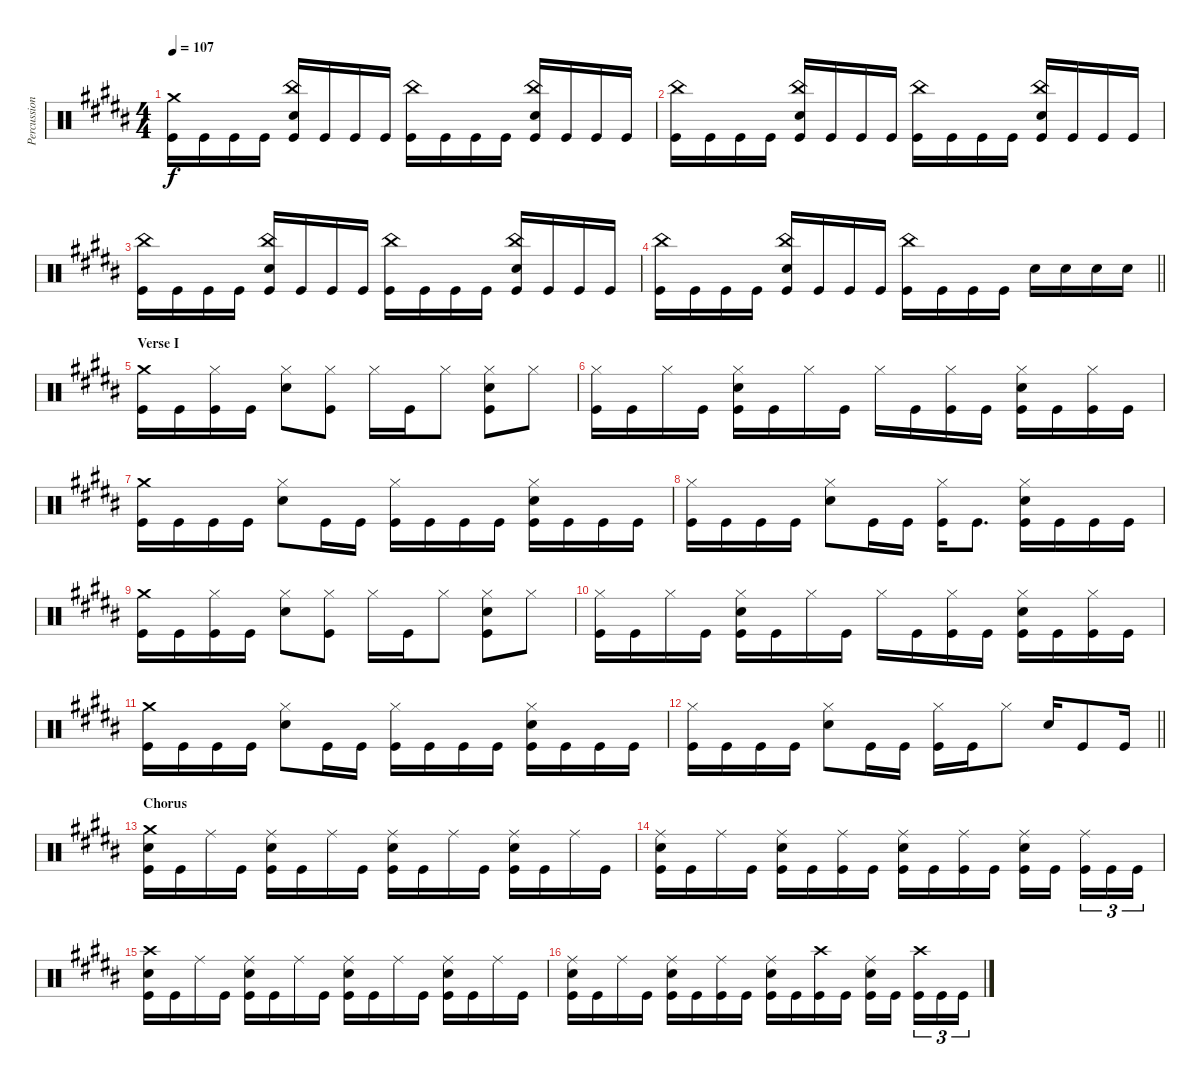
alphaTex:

\track ("Percussion" "Percussion") {instrument percussion}
\staff {score}
\articulation defaults
\ts (4 4)
\tempo 107
\clef neutral
\ks b
("Crash medium (hit)" "Kick (hit)").16{dy f} "Kick (hit)".16 "Kick (hit)".16 "Kick (hit)".16 ("China (hit)" "Electric Snare (hit)" "Kick (hit)").16 "Kick (hit)".16 "Kick (hit)".16 "Kick (hit)".16 ("China (hit)" "Kick (hit)").16 "Kick (hit)".16 "Kick (hit)".16 "Kick (hit)".16 ("China (hit)" "Electric Snare (hit)" "Kick (hit)").16 "Kick (hit)".16 "Kick (hit)".16 "Kick (hit)".16 |
("China (hit)" "Kick (hit)").16 "Kick (hit)".16 "Kick (hit)".16 "Kick (hit)".16 ("China (hit)" "Electric Snare (hit)" "Kick (hit)").16 "Kick (hit)".16 "Kick (hit)".16 "Kick (hit)".16 ("China (hit)" "Kick (hit)").16 "Kick (hit)".16 "Kick (hit)".16 "Kick (hit)".16 ("China (hit)" "Electric Snare (hit)" "Kick (hit)").16 "Kick (hit)".16 "Kick (hit)".16 "Kick (hit)".16 |
("China (hit)" "Kick (hit)").16 "Kick (hit)".16 "Kick (hit)".16 "Kick (hit)".16 ("China (hit)" "Electric Snare (hit)" "Kick (hit)").16 "Kick (hit)".16 "Kick (hit)".16 "Kick (hit)".16 ("China (hit)" "Kick (hit)").16 "Kick (hit)".16 "Kick (hit)".16 "Kick (hit)".16 ("China (hit)" "Electric Snare (hit)" "Kick (hit)").16 "Kick (hit)".16 "Kick (hit)".16 "Kick (hit)".16 |
\barLineRight lightlight
("China (hit)" "Kick (hit)").16 "Kick (hit)".16 "Kick (hit)".16 "Kick (hit)".16 ("China (hit)" "Electric Snare (hit)" "Kick (hit)").16 "Kick (hit)".16 "Kick (hit)".16 "Kick (hit)".16 ("China (hit)" "Kick (hit)").16 "Kick (hit)".16 "Kick (hit)".16 "Kick (hit)".16 "Electric Snare (hit)".16 "Electric Snare (hit)".16 "Electric Snare (hit)".16 "Electric Snare (hit)".16 |
\section ("" "Verse I")
("Crash medium (hit)" "Kick (hit)").16 "Kick (hit)".16 ("Hi-Hat (closed)" "Kick (hit)").16 "Kick (hit)".16 ("Hi-Hat (closed)" "Electric Snare (hit)").8 ("Hi-Hat (closed)" "Kick (hit)").8 "Hi-Hat (closed)".16 "Kick (hit)".16 "Hi-Hat (closed)".8 ("Hi-Hat (closed)" "Electric Snare (hit)" "Kick (hit)").8 "Hi-Hat (closed)".8 |
("Hi-Hat (closed)" "Kick (hit)").16 "Kick (hit)".16 "Hi-Hat (closed)".16 "Kick (hit)".16 ("Hi-Hat (closed)" "Electric Snare (hit)" "Kick (hit)").16 "Kick (hit)".16 "Hi-Hat (closed)".16 "Kick (hit)".16 "Hi-Hat (closed)".16 "Kick (hit)".16 ("Hi-Hat (closed)" "Kick (hit)").16 "Kick (hit)".16 ("Hi-Hat (closed)" "Electric Snare (hit)" "Kick (hit)").16 "Kick (hit)".16 ("Hi-Hat (closed)" "Kick (hit)").16 "Kick (hit)".16 |
("Crash medium (hit)" "Kick (hit)").16 "Kick (hit)".16 "Kick (hit)".16 "Kick (hit)".16 ("Hi-Hat (closed)" "Electric Snare (hit)").8 "Kick (hit)".16 "Kick (hit)".16 ("Hi-Hat (closed)" "Kick (hit)").16 "Kick (hit)".16 "Kick (hit)".16 "Kick (hit)".16 ("Hi-Hat (closed)" "Electric Snare (hit)" "Kick (hit)").16 "Kick (hit)".16 "Kick (hit)".16 "Kick (hit)".16 |
("Hi-Hat (closed)" "Kick (hit)").16 "Kick (hit)".16 "Kick (hit)".16 "Kick (hit)".16 ("Hi-Hat (closed)" "Electric Snare (hit)").8 "Kick (hit)".16 "Kick (hit)".16 ("Hi-Hat (closed)" "Kick (hit)").16 "Kick (hit)".8{d} ("Hi-Hat (closed)" "Electric Snare (hit)" "Kick (hit)").16 "Kick (hit)".16 "Kick (hit)".16 "Kick (hit)".16 |
("Crash medium (hit)" "Kick (hit)").16 "Kick (hit)".16 ("Hi-Hat (closed)" "Kick (hit)").16 "Kick (hit)".16 ("Hi-Hat (closed)" "Electric Snare (hit)").8 ("Hi-Hat (closed)" "Kick (hit)").8 "Hi-Hat (closed)".16 "Kick (hit)".16 "Hi-Hat (closed)".8 ("Hi-Hat (closed)" "Electric Snare (hit)" "Kick (hit)").8 "Hi-Hat (closed)".8 |
("Hi-Hat (closed)" "Kick (hit)").16 "Kick (hit)".16 "Hi-Hat (closed)".16 "Kick (hit)".16 ("Hi-Hat (closed)" "Electric Snare (hit)" "Kick (hit)").16 "Kick (hit)".16 "Hi-Hat (closed)".16 "Kick (hit)".16 "Hi-Hat (closed)".16 "Kick (hit)".16 ("Hi-Hat (closed)" "Kick (hit)").16 "Kick (hit)".16 ("Hi-Hat (closed)" "Electric Snare (hit)" "Kick (hit)").16 "Kick (hit)".16 ("Hi-Hat (closed)" "Kick (hit)").16 "Kick (hit)".16 |
("Crash medium (hit)" "Kick (hit)").16 "Kick (hit)".16 "Kick (hit)".16 "Kick (hit)".16 ("Hi-Hat (closed)" "Electric Snare (hit)").8 "Kick (hit)".16 "Kick (hit)".16 ("Hi-Hat (closed)" "Kick (hit)").16 "Kick (hit)".16 "Kick (hit)".16 "Kick (hit)".16 ("Hi-Hat (closed)" "Electric Snare (hit)" "Kick (hit)").16 "Kick (hit)".16 "Kick (hit)".16 "Kick (hit)".16 |
\barLineRight lightlight
("Hi-Hat (closed)" "Kick (hit)").16 "Kick (hit)".16 "Kick (hit)".16 "Kick (hit)".16 ("Hi-Hat (closed)" "Electric Snare (hit)").8 "Kick (hit)".16 "Kick (hit)".16 ("Hi-Hat (closed)" "Kick (hit)").16 "Kick (hit)".16 "Hi-Hat (closed)".8 "Electric Snare (hit)".16 "Kick (hit)".8 "Kick (hit)".16 |
\section ("" "Chorus")
("Crash medium (hit)" "Electric Snare (hit)" "Kick (hit)").16 "Kick (hit)".16 "Ride (middle)".16 "Kick (hit)".16 ("Ride (middle)" "Electric Snare (hit)" "Kick (hit)").16 "Kick (hit)".16 "Ride (middle)".16 "Kick (hit)".16 ("Ride (middle)" "Electric Snare (hit)" "Kick (hit)").16 "Kick (hit)".16 "Ride (middle)".16 "Kick (hit)".16 ("Ride (middle)" "Electric Snare (hit)" "Kick (hit)").16 "Kick (hit)".16 "Ride (middle)".16 "Kick (hit)".16 |
("Ride (middle)" "Electric Snare (hit)" "Kick (hit)").16 "Kick (hit)".16 "Ride (middle)".16 "Kick (hit)".16 ("Ride (middle)" "Electric Snare (hit)" "Kick (hit)").16 "Kick (hit)".16 ("Ride (middle)" "Kick (hit)").16 "Kick (hit)".16 ("Ride (middle)" "Electric Snare (hit)" "Kick (hit)").16 "Kick (hit)".16 ("Ride (middle)" "Kick (hit)").16 "Kick (hit)".16 ("Ride (middle)" "Electric Snare (hit)" "Kick (hit)").16 "Kick (hit)".16{beam splitsecondary} ("Ride (middle)" "Kick (hit)").16{tu (3 2)} "Kick (hit)".16{tu (3 2)} "Kick (hit)".16{tu (3 2)} |
("Crash high (hit)" "Electric Snare (hit)" "Kick (hit)").16 "Kick (hit)".16 "Ride (middle)".16 "Kick (hit)".16 ("Ride (middle)" "Electric Snare (hit)" "Kick (hit)").16 "Kick (hit)".16 "Ride (middle)".16 "Kick (hit)".16 ("Ride (middle)" "Electric Snare (hit)" "Kick (hit)").16 "Kick (hit)".16 "Ride (middle)".16 "Kick (hit)".16 ("Ride (middle)" "Electric Snare (hit)" "Kick (hit)").16 "Kick (hit)".16 "Ride (middle)".16 "Kick (hit)".16 |
("Ride (middle)" "Electric Snare (hit)" "Kick (hit)").16 "Kick (hit)".16 "Ride (middle)".16 "Kick (hit)".16 ("Ride (middle)" "Electric Snare (hit)" "Kick (hit)").16 "Kick (hit)".16 ("Ride (middle)" "Kick (hit)").16 "Kick (hit)".16 ("Ride (middle)" "Electric Snare (hit)" "Kick (hit)").16 "Kick (hit)".16 ("Crash high (hit)" "Kick (hit)").16 "Kick (hit)".16 ("Ride (middle)" "Electric Snare (hit)" "Kick (hit)").16 "Kick (hit)".16{beam splitsecondary} ("Crash high (hit)" "Kick (hit)").16{tu (3 2)} "Kick (hit)".16{tu (3 2)} "Kick (hit)".16{tu (3 2)}
